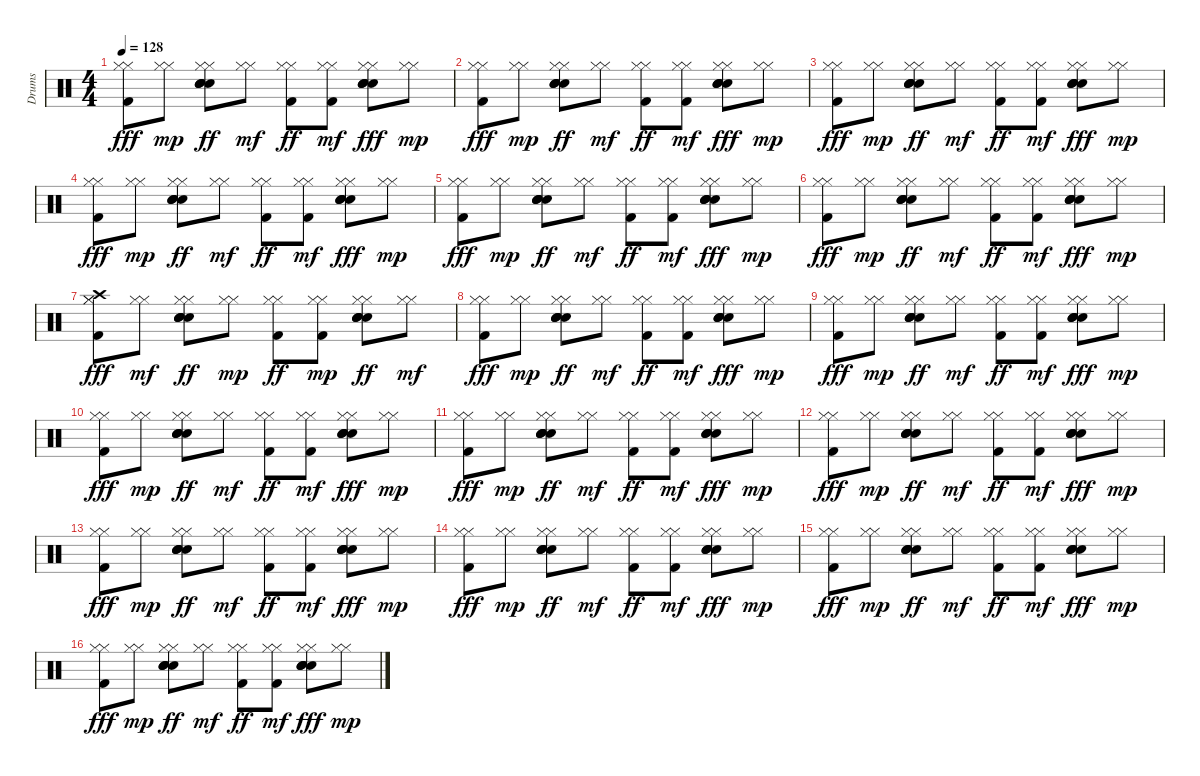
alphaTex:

\track ("Drums" "Drums") {instrument percussion}
\staff {score}
\articulation defaults
\ts (4 4)
\tempo 128
\clef neutral
\ks c
("Kick (hit) 2" "Hi-Hat (closed)" "Hi-Hat (closed)").8{dy fff} ("Hi-Hat (closed)" "Hi-Hat (closed)").8{dy mp} ("Hi-Hat (closed)" "Hi-Hat (closed)" "Snare (hit) 2" "Electric Snare (hit)" "Electric Snare (hit)" "Electric Snare (hit)").8{dy ff} ("Hi-Hat (closed)" "Hi-Hat (closed)").8{dy mf} ("Kick (hit) 2" "Hi-Hat (closed)" "Hi-Hat (closed)").8{dy ff} ("Kick (hit) 2" "Hi-Hat (closed)" "Hi-Hat (closed)").8{dy mf} ("Snare (hit) 2" "Hi-Hat (closed)" "Hi-Hat (closed)" "Electric Snare (hit)" "Electric Snare (hit)" "Electric Snare (hit)").8{dy fff} ("Hi-Hat (closed)" "Hi-Hat (closed)").8{dy mp} |
("Kick (hit) 2" "Hi-Hat (closed)" "Hi-Hat (closed)").8{dy fff} ("Hi-Hat (closed)" "Hi-Hat (closed)").8{dy mp} ("Hi-Hat (closed)" "Hi-Hat (closed)" "Snare (hit) 2" "Electric Snare (hit)" "Electric Snare (hit)" "Electric Snare (hit)").8{dy ff} ("Hi-Hat (closed)" "Hi-Hat (closed)").8{dy mf} ("Kick (hit) 2" "Hi-Hat (closed)" "Hi-Hat (closed)").8{dy ff} ("Kick (hit) 2" "Hi-Hat (closed)" "Hi-Hat (closed)").8{dy mf} ("Snare (hit) 2" "Hi-Hat (closed)" "Hi-Hat (closed)" "Electric Snare (hit)" "Electric Snare (hit)" "Electric Snare (hit)").8{dy fff} ("Hi-Hat (closed)" "Hi-Hat (closed)").8{dy mp} |
("Kick (hit) 2" "Hi-Hat (closed)" "Hi-Hat (closed)").8{dy fff} ("Hi-Hat (closed)" "Hi-Hat (closed)").8{dy mp} ("Hi-Hat (closed)" "Hi-Hat (closed)" "Snare (hit) 2" "Electric Snare (hit)" "Electric Snare (hit)" "Electric Snare (hit)").8{dy ff} ("Hi-Hat (closed)" "Hi-Hat (closed)").8{dy mf} ("Kick (hit) 2" "Hi-Hat (closed)" "Hi-Hat (closed)").8{dy ff} ("Kick (hit) 2" "Hi-Hat (closed)" "Hi-Hat (closed)").8{dy mf} ("Snare (hit) 2" "Hi-Hat (closed)" "Hi-Hat (closed)" "Electric Snare (hit)" "Electric Snare (hit)" "Electric Snare (hit)").8{dy fff} ("Hi-Hat (closed)" "Hi-Hat (closed)").8{dy mp} |
("Kick (hit) 2" "Hi-Hat (closed)" "Hi-Hat (closed)").8{dy fff} ("Hi-Hat (closed)" "Hi-Hat (closed)").8{dy mp} ("Hi-Hat (closed)" "Hi-Hat (closed)" "Snare (hit) 2" "Electric Snare (hit)" "Electric Snare (hit)" "Electric Snare (hit)").8{dy ff} ("Hi-Hat (closed)" "Hi-Hat (closed)").8{dy mf} ("Kick (hit) 2" "Hi-Hat (closed)" "Hi-Hat (closed)").8{dy ff} ("Kick (hit) 2" "Hi-Hat (closed)" "Hi-Hat (closed)").8{dy mf} ("Snare (hit) 2" "Hi-Hat (closed)" "Hi-Hat (closed)" "Electric Snare (hit)" "Electric Snare (hit)" "Electric Snare (hit)").8{dy fff} ("Hi-Hat (closed)" "Hi-Hat (closed)").8{dy mp} |
("Kick (hit) 2" "Hi-Hat (closed)" "Hi-Hat (closed)").8{dy fff} ("Hi-Hat (closed)" "Hi-Hat (closed)").8{dy mp} ("Hi-Hat (closed)" "Hi-Hat (closed)" "Snare (hit) 2" "Electric Snare (hit)" "Electric Snare (hit)" "Electric Snare (hit)").8{dy ff} ("Hi-Hat (closed)" "Hi-Hat (closed)").8{dy mf} ("Kick (hit) 2" "Hi-Hat (closed)" "Hi-Hat (closed)").8{dy ff} ("Kick (hit) 2" "Hi-Hat (closed)" "Hi-Hat (closed)").8{dy mf} ("Snare (hit) 2" "Hi-Hat (closed)" "Hi-Hat (closed)" "Electric Snare (hit)" "Electric Snare (hit)" "Electric Snare (hit)").8{dy fff} ("Hi-Hat (closed)" "Hi-Hat (closed)").8{dy mp} |
("Kick (hit) 2" "Hi-Hat (closed)" "Hi-Hat (closed)").8{dy fff} ("Hi-Hat (closed)" "Hi-Hat (closed)").8{dy mp} ("Hi-Hat (closed)" "Hi-Hat (closed)" "Snare (hit) 2" "Electric Snare (hit)" "Electric Snare (hit)" "Electric Snare (hit)").8{dy ff} ("Hi-Hat (closed)" "Hi-Hat (closed)").8{dy mf} ("Kick (hit) 2" "Hi-Hat (closed)" "Hi-Hat (closed)").8{dy ff} ("Kick (hit) 2" "Hi-Hat (closed)" "Hi-Hat (closed)").8{dy mf} ("Snare (hit) 2" "Hi-Hat (closed)" "Hi-Hat (closed)" "Electric Snare (hit)" "Electric Snare (hit)" "Electric Snare (hit)").8{dy fff} ("Hi-Hat (closed)" "Hi-Hat (closed)").8{dy mp} |
("Crash high (hit)" "Hi-Hat (closed)" "Hi-Hat (closed)" "Kick (hit) 2").8{dy fff} ("Hi-Hat (closed)" "Hi-Hat (closed)").8{dy mf} ("Hi-Hat (closed)" "Snare (hit) 2" "Hi-Hat (closed)" "Electric Snare (hit)" "Electric Snare (hit)" "Electric Snare (hit)").8{dy ff} ("Hi-Hat (closed)" "Hi-Hat (closed)").8{dy mp} ("Hi-Hat (closed)" "Hi-Hat (closed)" "Kick (hit) 2").8{dy ff} ("Hi-Hat (closed)" "Hi-Hat (closed)" "Kick (hit) 2").8{dy mp} ("Hi-Hat (closed)" "Hi-Hat (closed)" "Snare (hit) 2" "Electric Snare (hit)" "Electric Snare (hit)" "Electric Snare (hit)").8{dy ff} ("Hi-Hat (closed)" "Hi-Hat (closed)").8{dy mf} |
("Kick (hit) 2" "Hi-Hat (closed)" "Hi-Hat (closed)").8{dy fff} ("Hi-Hat (closed)" "Hi-Hat (closed)").8{dy mp} ("Hi-Hat (closed)" "Hi-Hat (closed)" "Snare (hit) 2" "Electric Snare (hit)" "Electric Snare (hit)" "Electric Snare (hit)").8{dy ff} ("Hi-Hat (closed)" "Hi-Hat (closed)").8{dy mf} ("Kick (hit) 2" "Hi-Hat (closed)" "Hi-Hat (closed)").8{dy ff} ("Kick (hit) 2" "Hi-Hat (closed)" "Hi-Hat (closed)").8{dy mf} ("Snare (hit) 2" "Hi-Hat (closed)" "Hi-Hat (closed)" "Electric Snare (hit)" "Electric Snare (hit)" "Electric Snare (hit)").8{dy fff} ("Hi-Hat (closed)" "Hi-Hat (closed)").8{dy mp} |
("Kick (hit) 2" "Hi-Hat (closed)" "Hi-Hat (closed)").8{dy fff} ("Hi-Hat (closed)" "Hi-Hat (closed)").8{dy mp} ("Hi-Hat (closed)" "Hi-Hat (closed)" "Snare (hit) 2" "Electric Snare (hit)" "Electric Snare (hit)" "Electric Snare (hit)").8{dy ff} ("Hi-Hat (closed)" "Hi-Hat (closed)").8{dy mf} ("Kick (hit) 2" "Hi-Hat (closed)" "Hi-Hat (closed)").8{dy ff} ("Kick (hit) 2" "Hi-Hat (closed)" "Hi-Hat (closed)").8{dy mf} ("Snare (hit) 2" "Hi-Hat (closed)" "Hi-Hat (closed)" "Electric Snare (hit)" "Electric Snare (hit)" "Electric Snare (hit)").8{dy fff} ("Hi-Hat (closed)" "Hi-Hat (closed)").8{dy mp} |
("Kick (hit) 2" "Hi-Hat (closed)" "Hi-Hat (closed)").8{dy fff} ("Hi-Hat (closed)" "Hi-Hat (closed)").8{dy mp} ("Hi-Hat (closed)" "Hi-Hat (closed)" "Snare (hit) 2" "Electric Snare (hit)" "Electric Snare (hit)" "Electric Snare (hit)").8{dy ff} ("Hi-Hat (closed)" "Hi-Hat (closed)").8{dy mf} ("Kick (hit) 2" "Hi-Hat (closed)" "Hi-Hat (closed)").8{dy ff} ("Kick (hit) 2" "Hi-Hat (closed)" "Hi-Hat (closed)").8{dy mf} ("Snare (hit) 2" "Hi-Hat (closed)" "Hi-Hat (closed)" "Electric Snare (hit)" "Electric Snare (hit)" "Electric Snare (hit)").8{dy fff} ("Hi-Hat (closed)" "Hi-Hat (closed)").8{dy mp} |
("Kick (hit) 2" "Hi-Hat (closed)" "Hi-Hat (closed)").8{dy fff} ("Hi-Hat (closed)" "Hi-Hat (closed)").8{dy mp} ("Hi-Hat (closed)" "Hi-Hat (closed)" "Snare (hit) 2" "Electric Snare (hit)" "Electric Snare (hit)" "Electric Snare (hit)").8{dy ff} ("Hi-Hat (closed)" "Hi-Hat (closed)").8{dy mf} ("Kick (hit) 2" "Hi-Hat (closed)" "Hi-Hat (closed)").8{dy ff} ("Kick (hit) 2" "Hi-Hat (closed)" "Hi-Hat (closed)").8{dy mf} ("Snare (hit) 2" "Hi-Hat (closed)" "Hi-Hat (closed)" "Electric Snare (hit)" "Electric Snare (hit)" "Electric Snare (hit)").8{dy fff} ("Hi-Hat (closed)" "Hi-Hat (closed)").8{dy mp} |
("Kick (hit) 2" "Hi-Hat (closed)" "Hi-Hat (closed)").8{dy fff} ("Hi-Hat (closed)" "Hi-Hat (closed)").8{dy mp} ("Hi-Hat (closed)" "Hi-Hat (closed)" "Snare (hit) 2" "Electric Snare (hit)" "Electric Snare (hit)" "Electric Snare (hit)").8{dy ff} ("Hi-Hat (closed)" "Hi-Hat (closed)").8{dy mf} ("Kick (hit) 2" "Hi-Hat (closed)" "Hi-Hat (closed)").8{dy ff} ("Kick (hit) 2" "Hi-Hat (closed)" "Hi-Hat (closed)").8{dy mf} ("Snare (hit) 2" "Hi-Hat (closed)" "Hi-Hat (closed)" "Electric Snare (hit)" "Electric Snare (hit)" "Electric Snare (hit)").8{dy fff} ("Hi-Hat (closed)" "Hi-Hat (closed)").8{dy mp} |
("Kick (hit) 2" "Hi-Hat (closed)" "Hi-Hat (closed)").8{dy fff} ("Hi-Hat (closed)" "Hi-Hat (closed)").8{dy mp} ("Hi-Hat (closed)" "Hi-Hat (closed)" "Snare (hit) 2" "Electric Snare (hit)" "Electric Snare (hit)" "Electric Snare (hit)").8{dy ff} ("Hi-Hat (closed)" "Hi-Hat (closed)").8{dy mf} ("Kick (hit) 2" "Hi-Hat (closed)" "Hi-Hat (closed)").8{dy ff} ("Kick (hit) 2" "Hi-Hat (closed)" "Hi-Hat (closed)").8{dy mf} ("Snare (hit) 2" "Hi-Hat (closed)" "Hi-Hat (closed)" "Electric Snare (hit)" "Electric Snare (hit)" "Electric Snare (hit)").8{dy fff} ("Hi-Hat (closed)" "Hi-Hat (closed)").8{dy mp} |
("Kick (hit) 2" "Hi-Hat (closed)" "Hi-Hat (closed)").8{dy fff} ("Hi-Hat (closed)" "Hi-Hat (closed)").8{dy mp} ("Hi-Hat (closed)" "Hi-Hat (closed)" "Snare (hit) 2" "Electric Snare (hit)" "Electric Snare (hit)" "Electric Snare (hit)").8{dy ff} ("Hi-Hat (closed)" "Hi-Hat (closed)").8{dy mf} ("Kick (hit) 2" "Hi-Hat (closed)" "Hi-Hat (closed)").8{dy ff} ("Kick (hit) 2" "Hi-Hat (closed)" "Hi-Hat (closed)").8{dy mf} ("Snare (hit) 2" "Hi-Hat (closed)" "Hi-Hat (closed)" "Electric Snare (hit)" "Electric Snare (hit)" "Electric Snare (hit)").8{dy fff} ("Hi-Hat (closed)" "Hi-Hat (closed)").8{dy mp} |
("Kick (hit) 2" "Hi-Hat (closed)" "Hi-Hat (closed)").8{dy fff} ("Hi-Hat (closed)" "Hi-Hat (closed)").8{dy mp} ("Hi-Hat (closed)" "Hi-Hat (closed)" "Snare (hit) 2" "Electric Snare (hit)" "Electric Snare (hit)" "Electric Snare (hit)").8{dy ff} ("Hi-Hat (closed)" "Hi-Hat (closed)").8{dy mf} ("Kick (hit) 2" "Hi-Hat (closed)" "Hi-Hat (closed)").8{dy ff} ("Kick (hit) 2" "Hi-Hat (closed)" "Hi-Hat (closed)").8{dy mf} ("Snare (hit) 2" "Hi-Hat (closed)" "Hi-Hat (closed)" "Electric Snare (hit)" "Electric Snare (hit)" "Electric Snare (hit)").8{dy fff} ("Hi-Hat (closed)" "Hi-Hat (closed)").8{dy mp} |
("Kick (hit) 2" "Hi-Hat (closed)" "Hi-Hat (closed)").8{dy fff} ("Hi-Hat (closed)" "Hi-Hat (closed)").8{dy mp} ("Hi-Hat (closed)" "Hi-Hat (closed)" "Snare (hit) 2" "Electric Snare (hit)" "Electric Snare (hit)" "Electric Snare (hit)").8{dy ff} ("Hi-Hat (closed)" "Hi-Hat (closed)").8{dy mf} ("Kick (hit) 2" "Hi-Hat (closed)" "Hi-Hat (closed)").8{dy ff} ("Kick (hit) 2" "Hi-Hat (closed)" "Hi-Hat (closed)").8{dy mf} ("Snare (hit) 2" "Hi-Hat (closed)" "Hi-Hat (closed)" "Electric Snare (hit)" "Electric Snare (hit)" "Electric Snare (hit)").8{dy fff} ("Hi-Hat (closed)" "Hi-Hat (closed)").8{dy mp}
